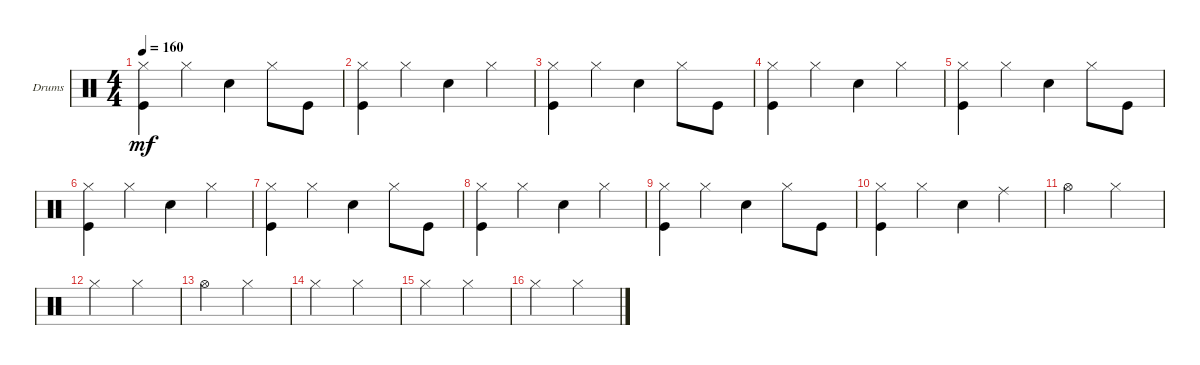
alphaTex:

\defaultSystemsLayout 4
\bracketExtendMode groupsimilarinstruments
\firstSystemTrackNameOrientation horizontal
\otherSystemsTrackNameOrientation horizontal
\track ("Drumkit" "Drums") {instrument percussion}
\staff {score}
\articulation defaults
\ts (4 4)
\tempo 160
\clef neutral
\scale
0.333333
\ks c
("Kick (hit)" "Hi-Hat (closed)").4{dy mf} "Hi-Hat (closed)".4 "Snare (hit) 2".4 "Hi-Hat (closed)".8 "Kick (hit)".8 |
\scale
0.333333 ("Kick (hit)" "Hi-Hat (closed)").4 "Hi-Hat (closed)".4 "Snare (hit) 2".4 "Hi-Hat (closed)".4 |
\scale
0.333333 ("Kick (hit)" "Hi-Hat (closed)").4 "Hi-Hat (closed)".4 "Snare (hit) 2".4 "Hi-Hat (closed)".8 "Kick (hit)".8 |
\scale
0.333333 ("Kick (hit)" "Hi-Hat (closed)").4 "Hi-Hat (closed)".4 "Snare (hit) 2".4 "Hi-Hat (closed)".4 |
\scale
0.333333 ("Kick (hit)" "Hi-Hat (closed)").4 "Hi-Hat (closed)".4 "Snare (hit) 2".4 "Hi-Hat (closed)".8 "Kick (hit)".8 |
\scale
0.333333 ("Kick (hit)" "Hi-Hat (closed)").4 "Hi-Hat (closed)".4 "Snare (hit) 2".4 "Hi-Hat (closed)".4 |
\scale
0.333333 ("Kick (hit)" "Hi-Hat (closed)").4 "Hi-Hat (closed)".4 "Snare (hit) 2".4 "Hi-Hat (closed)".8 "Kick (hit)".8 |
\scale
0.333333 ("Kick (hit)" "Hi-Hat (closed)").4 "Hi-Hat (closed)".4 "Snare (hit) 2".4 "Hi-Hat (closed)".4 |
\scale
0.333333 ("Kick (hit)" "Hi-Hat (closed)").4 "Hi-Hat (closed)".4 "Snare (hit) 2".4 "Hi-Hat (closed)".8 "Kick (hit)".8 |
\scale
0.333333 ("Kick (hit)" "Hi-Hat (closed)").4 "Hi-Hat (closed)".4 "Snare (hit) 2".4 "Ride (middle)".4 |
\scale
0.333333 "Hi-Hat (open)".2 "Hi-Hat (closed)".2 |
\scale
0.333333 "Hi-Hat (closed)".2 "Hi-Hat (closed)".2 |
\scale
0.333333 "Hi-Hat (open)".2 "Hi-Hat (closed)".2 |
\scale
0.333333 "Hi-Hat (closed)".2 "Hi-Hat (closed)".2 |
\scale
0.333333 "Hi-Hat (closed)".2 "Hi-Hat (closed)".2 |
\scale
0.333333 "Hi-Hat (closed)".2 "Hi-Hat (closed)".2
